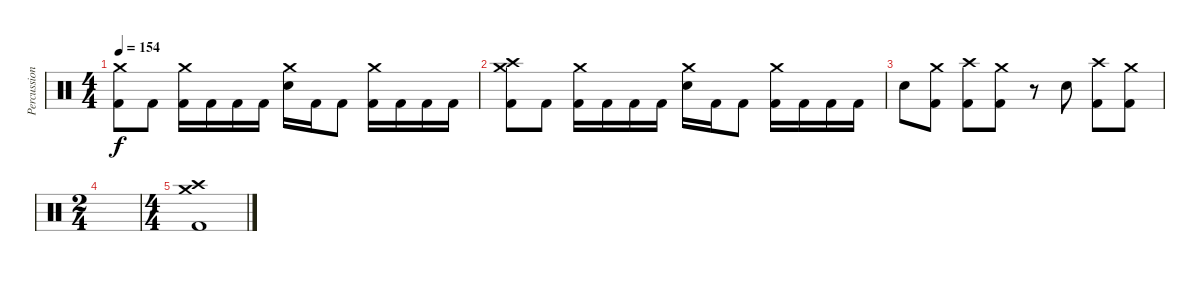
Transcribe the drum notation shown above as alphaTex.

\track ("Percussion" "Percussion") {instrument percussion bank 128}
\staff {score}
\articulation defaults
\ts (4 4)
\tempo 154
\clef neutral
\ks c
("Crash medium (hit)" "Kick (hit) 2").8{dy f} "Kick (hit) 2".8 ("Crash medium (hit)" "Kick (hit) 2").16 "Kick (hit) 2".16 "Kick (hit) 2".16 "Kick (hit) 2".16 ("Crash medium (hit)" "Snare (hit) 2").16 "Kick (hit) 2".16 "Kick (hit) 2".8 ("Crash medium (hit)" "Kick (hit) 2").16 "Kick (hit) 2".16 "Kick (hit) 2".16 "Kick (hit) 2".16 |
("Crash high (hit)" "Crash medium (hit)" "Kick (hit) 2").8 "Kick (hit) 2".8 ("Crash medium (hit)" "Kick (hit) 2").16 "Kick (hit) 2".16 "Kick (hit) 2".16 "Kick (hit) 2".16 ("Crash medium (hit)" "Snare (hit) 2").16 "Kick (hit) 2".16 "Kick (hit) 2".8 ("Crash medium (hit)" "Kick (hit) 2").16 "Kick (hit) 2".16 "Kick (hit) 2".16 "Kick (hit) 2".16 |
"Snare (hit) 2".8 ("Crash medium (hit)" "Kick (hit) 2").8 ("Crash high (hit)" "Kick (hit) 2").8 ("Crash medium (hit)" "Kick (hit) 2").8 r.8 "Snare (hit) 2".8 ("Crash high (hit)" "Kick (hit) 2").8 ("Crash medium (hit)" "Kick (hit) 2").8 |
\ts (2 4)
|
\ts (4 4)
("Crash high (hit)" "Crash medium (hit)" "Kick (hit) 2").1
